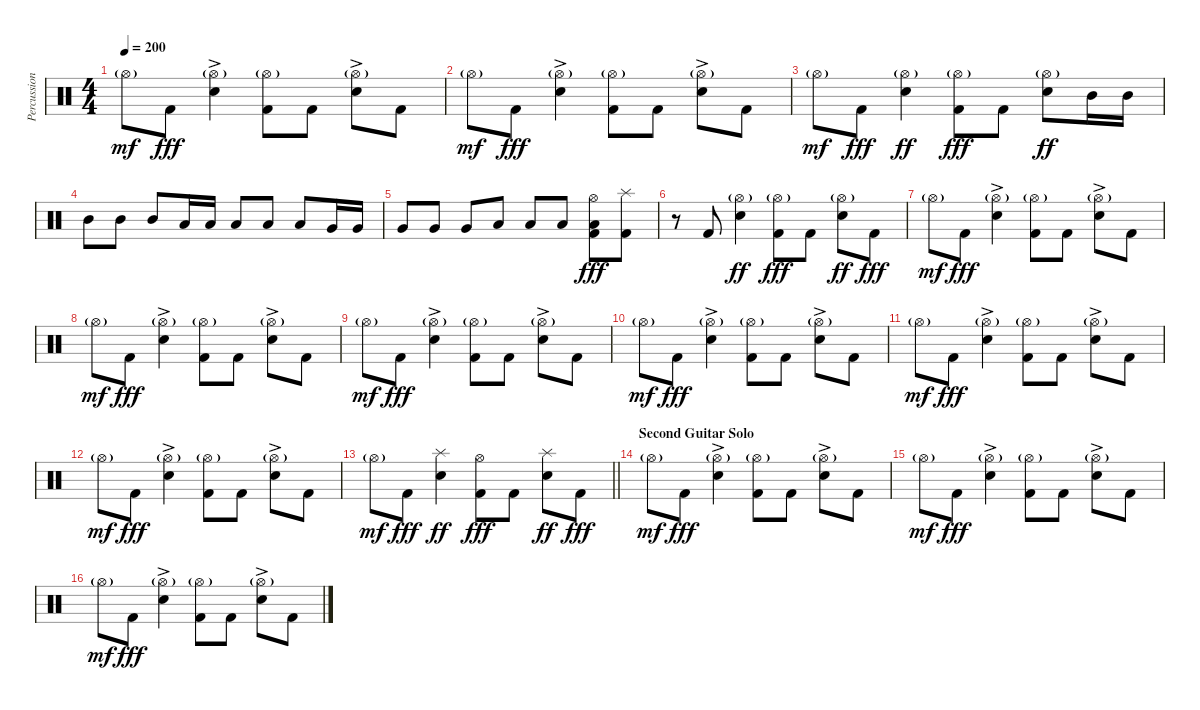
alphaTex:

\track ("Percussion , Drums - Travis Smith" "Percussion") {instrument percussion}
\staff {score}
\articulation defaults
\ts (4 4)
\tempo 200
\clef neutral
\ks c "Hi-Hat (open)"{g}.8{dy mf} "Kick (hit) 2".8{dy fff}
("Hi-Hat (open)"{g} "Electric Snare (hit)"{ac}).4 ("Hi-Hat (open)"{g} "Kick (hit) 2").8 "Kick (hit) 2".8 ("Hi-Hat (open)"{g} "Electric Snare (hit)"{ac}).8 "Kick (hit) 2".8 |
"Hi-Hat (open)"{g}.8{dy mf} "Kick (hit) 2".8{dy fff} ("Hi-Hat (open)"{g} "Electric Snare (hit)"{ac}).4 ("Hi-Hat (open)"{g} "Kick (hit) 2").8 "Kick (hit) 2".8 ("Hi-Hat (open)"{g} "Electric Snare (hit)"{ac}).8 "Kick (hit) 2".8 |
"Hi-Hat (open)"{g}.8{dy mf} "Kick (hit) 2".8{dy fff} ("Hi-Hat (open)"{g} "Electric Snare (hit)").4{dy ff} ("Hi-Hat (open)"{g} "Kick (hit) 2").8{dy fff} "Kick (hit) 2".8 ("Hi-Hat (open)"{g} "Electric Snare (hit)").8{dy ff} "Mid Tom (hit)".16 "Mid Tom (hit)".16 |
"Mid Tom (hit)".8 "Mid Tom (hit)".8 "Mid Tom (hit)".8 "Low Tom (hit)".16 "Low Tom (hit)".16 "Low Tom (hit)".8 "Low Tom (hit)".8 "Low Tom (hit)".8 "Very Low Tom (hit)".16 "Very Low Tom (hit)".16 |
"Very Low Tom (hit)".8 "Very Low Tom (hit)".8 "Very Low Tom (hit)".8 "Low Floor Tom (hit)".8 "Low Floor Tom (hit)".8 "Low Floor Tom (hit)".8 ("Hi-Hat (open)" "Low Floor Tom (hit)" "Kick (hit) 2").8{dy fff} ("Splash (hit)" "Kick (hit) 2").8 |
r.8 "Kick (hit) 2".8 ("Hi-Hat (open)"{g} "Electric Snare (hit)").4{dy ff} ("Hi-Hat (open)"{g} "Kick (hit) 2").8{dy fff} "Kick (hit) 2".8 ("Hi-Hat (open)"{g} "Electric Snare (hit)").8{dy ff} "Kick (hit) 2".8{dy fff} |
"Hi-Hat (open)"{g}.8{dy mf} "Kick (hit) 2".8{dy fff} ("Hi-Hat (open)"{g} "Electric Snare (hit)"{ac}).4 ("Hi-Hat (open)"{g} "Kick (hit) 2").8 "Kick (hit) 2".8 ("Hi-Hat (open)"{g} "Electric Snare (hit)"{ac}).8 "Kick (hit) 2".8 |
"Hi-Hat (open)"{g}.8{dy mf} "Kick (hit) 2".8{dy fff} ("Hi-Hat (open)"{g} "Electric Snare (hit)"{ac}).4 ("Hi-Hat (open)"{g} "Kick (hit) 2").8 "Kick (hit) 2".8 ("Hi-Hat (open)"{g} "Electric Snare (hit)"{ac}).8 "Kick (hit) 2".8 |
"Hi-Hat (open)"{g}.8{dy mf} "Kick (hit) 2".8{dy fff} ("Hi-Hat (open)"{g} "Electric Snare (hit)"{ac}).4 ("Hi-Hat (open)"{g} "Kick (hit) 2").8 "Kick (hit) 2".8 ("Hi-Hat (open)"{g} "Electric Snare (hit)"{ac}).8 "Kick (hit) 2".8 |
"Hi-Hat (open)"{g}.8{dy mf} "Kick (hit) 2".8{dy fff} ("Hi-Hat (open)"{g} "Electric Snare (hit)"{ac}).4 ("Hi-Hat (open)"{g} "Kick (hit) 2").8 "Kick (hit) 2".8 ("Hi-Hat (open)"{g} "Electric Snare (hit)"{ac}).8 "Kick (hit) 2".8 |
"Hi-Hat (open)"{g}.8{dy mf} "Kick (hit) 2".8{dy fff} ("Hi-Hat (open)"{g} "Electric Snare (hit)"{ac}).4 ("Hi-Hat (open)"{g} "Kick (hit) 2").8 "Kick (hit) 2".8 ("Hi-Hat (open)"{g} "Electric Snare (hit)"{ac}).8 "Kick (hit) 2".8 |
"Hi-Hat (open)"{g}.8{dy mf} "Kick (hit) 2".8{dy fff} ("Hi-Hat (open)"{g} "Electric Snare (hit)"{ac}).4 ("Hi-Hat (open)"{g} "Kick (hit) 2").8 "Kick (hit) 2".8 ("Hi-Hat (open)"{g} "Electric Snare (hit)"{ac}).8 "Kick (hit) 2".8 |
\barLineRight lightlight "Hi-Hat (open)"{g}.8{dy mf} "Kick (hit) 2".8{dy fff}
("Splash (hit)" "Electric Snare (hit)").4{dy ff} ("Hi-Hat (open)" "Kick (hit) 2").8{dy fff} "Kick (hit) 2".8 ("Splash (hit)" "Electric Snare (hit)").8{dy ff} "Kick (hit) 2".8{dy fff} |
\section ("" "Second Guitar Solo")
"Hi-Hat (open)"{g}.8{dy mf} "Kick (hit) 2".8{dy fff} ("Hi-Hat (open)"{g} "Electric Snare (hit)"{ac}).4 ("Hi-Hat (open)"{g} "Kick (hit) 2").8 "Kick (hit) 2".8 ("Hi-Hat (open)"{g} "Electric Snare (hit)"{ac}).8 "Kick (hit) 2".8 |
"Hi-Hat (open)"{g}.8{dy mf} "Kick (hit) 2".8{dy fff} ("Hi-Hat (open)"{g} "Electric Snare (hit)"{ac}).4 ("Hi-Hat (open)"{g} "Kick (hit) 2").8 "Kick (hit) 2".8 ("Hi-Hat (open)"{g} "Electric Snare (hit)"{ac}).8 "Kick (hit) 2".8 |
"Hi-Hat (open)"{g}.8{dy mf} "Kick (hit) 2".8{dy fff} ("Hi-Hat (open)"{g} "Electric Snare (hit)"{ac}).4 ("Hi-Hat (open)"{g} "Kick (hit) 2").8 "Kick (hit) 2".8 ("Hi-Hat (open)"{g} "Electric Snare (hit)"{ac}).8 "Kick (hit) 2".8
